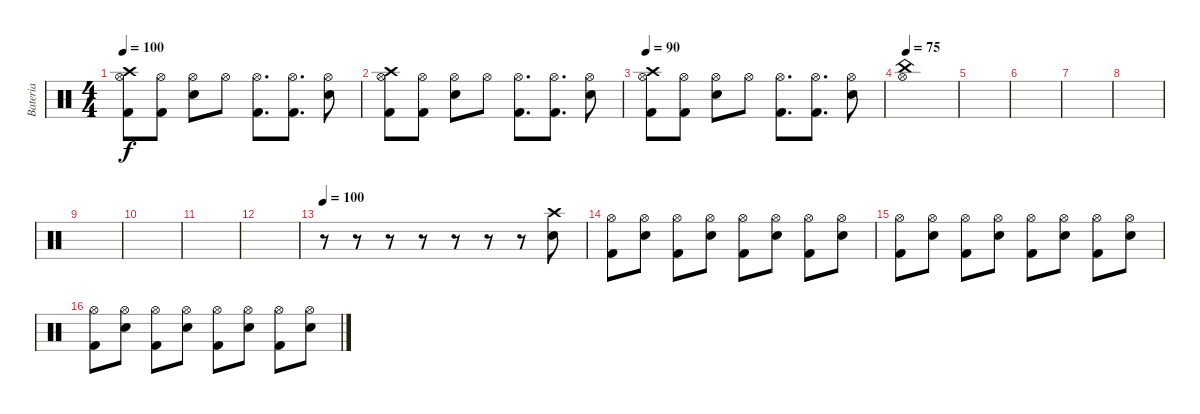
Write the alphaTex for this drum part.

\track ("Bateria" "Bateria") {instrument percussion}
\staff {score}
\articulation defaults
\ts (4 4)
\tempo 100
\clef neutral
\ks c
("Hi-Hat (open)" "Kick (hit) 2" "Crash high (hit)").8{dy f} ("Hi-Hat (open)" "Kick (hit) 2").8 ("Hi-Hat (open)" "Snare (hit) 2").8 "Hi-Hat (open)".8 ("Hi-Hat (open)" "Kick (hit) 2").8{d} ("Hi-Hat (open)" "Kick (hit) 2").8{d} ("Hi-Hat (open)" "Snare (hit) 2").8 |
("Hi-Hat (open)" "Kick (hit) 2" "Crash high (hit)").8 ("Hi-Hat (open)" "Kick (hit) 2").8 ("Hi-Hat (open)" "Snare (hit) 2").8 "Hi-Hat (open)".8 ("Hi-Hat (open)" "Kick (hit) 2").8{d} ("Hi-Hat (open)" "Kick (hit) 2").8{d} ("Hi-Hat (open)" "Snare (hit) 2").8 |
\tempo 90
("Hi-Hat (open)" "Kick (hit) 2" "Crash high (hit)").8 ("Hi-Hat (open)" "Kick (hit) 2").8 ("Hi-Hat (open)" "Snare (hit) 2").8 "Hi-Hat (open)".8 ("Hi-Hat (open)" "Kick (hit) 2").8{d} ("Hi-Hat (open)" "Kick (hit) 2").8{d} ("Hi-Hat (open)" "Snare (hit) 2").8 |
\tempo 75
("Hi-Hat (open)" "China (hit)").1 |
|
|
|
|
|
|
|
|
\tempo 100
r.8 r.8 r.8 r.8 r.8 r.8 r.8 ("Crash high (hit)" "Electric Snare (hit)").8 |
("Hi-Hat (open)" "Kick (hit) 2").8 ("Hi-Hat (open)" "Electric Snare (hit)").8 ("Hi-Hat (open)" "Kick (hit) 2").8 ("Hi-Hat (open)" "Electric Snare (hit)").8 ("Hi-Hat (open)" "Kick (hit) 2").8 ("Hi-Hat (open)" "Electric Snare (hit)").8 ("Hi-Hat (open)" "Kick (hit) 2").8 ("Hi-Hat (open)" "Electric Snare (hit)").8 |
("Hi-Hat (open)" "Kick (hit) 2").8 ("Hi-Hat (open)" "Electric Snare (hit)").8 ("Hi-Hat (open)" "Kick (hit) 2").8 ("Hi-Hat (open)" "Electric Snare (hit)").8 ("Hi-Hat (open)" "Kick (hit) 2").8 ("Hi-Hat (open)" "Electric Snare (hit)").8 ("Hi-Hat (open)" "Kick (hit) 2").8 ("Hi-Hat (open)" "Electric Snare (hit)").8 |
("Hi-Hat (open)" "Kick (hit) 2").8 ("Hi-Hat (open)" "Electric Snare (hit)").8 ("Hi-Hat (open)" "Kick (hit) 2").8 ("Hi-Hat (open)" "Electric Snare (hit)").8 ("Hi-Hat (open)" "Kick (hit) 2").8 ("Hi-Hat (open)" "Electric Snare (hit)").8 ("Hi-Hat (open)" "Kick (hit) 2").8 ("Hi-Hat (open)" "Electric Snare (hit)").8
